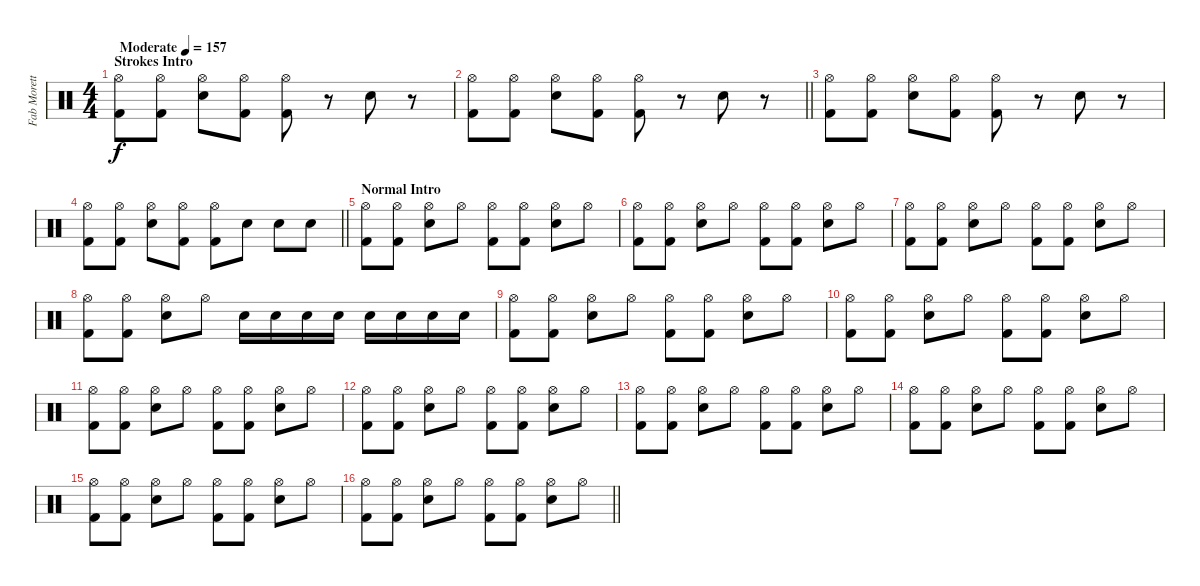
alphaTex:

\track ("Fab Moretti - Drums" "Fab Morett") {instrument percussion bank 177}
\staff {score}
\articulation defaults
\ts (4 4)
\section ("" "Strokes Intro")
\tempo (157 "Moderate")
\clef neutral
\ks c
("Hi-Hat (open)" "Kick (hit) 2").8{dy f} ("Hi-Hat (open)" "Kick (hit) 2").8 ("Hi-Hat (open)" "Electric Snare (hit)").8 ("Hi-Hat (open)" "Kick (hit) 2").8 ("Hi-Hat (open)" "Kick (hit) 2").8 r.8 "Electric Snare (hit)".8 r.8 |
\barLineRight lightlight
("Hi-Hat (open)" "Kick (hit) 2").8 ("Hi-Hat (open)" "Kick (hit) 2").8 ("Hi-Hat (open)" "Electric Snare (hit)").8 ("Hi-Hat (open)" "Kick (hit) 2").8 ("Hi-Hat (open)" "Kick (hit) 2").8 r.8 "Electric Snare (hit)".8 r.8 |
("Hi-Hat (open)" "Kick (hit) 2").8 ("Hi-Hat (open)" "Kick (hit) 2").8 ("Hi-Hat (open)" "Electric Snare (hit)").8 ("Hi-Hat (open)" "Kick (hit) 2").8 ("Hi-Hat (open)" "Kick (hit) 2").8 r.8 "Electric Snare (hit)".8 r.8 |
\barLineRight lightlight
("Hi-Hat (open)" "Kick (hit) 2").8 ("Hi-Hat (open)" "Kick (hit) 2").8 ("Hi-Hat (open)" "Electric Snare (hit)").8 ("Hi-Hat (open)" "Kick (hit) 2").8 ("Hi-Hat (open)" "Kick (hit) 2").8 "Electric Snare (hit)".8 "Electric Snare (hit)".8 "Electric Snare (hit)".8 |
\section ("" "Normal Intro")
("Hi-Hat (open)" "Kick (hit) 2").8 ("Hi-Hat (open)" "Kick (hit) 2").8 ("Hi-Hat (open)" "Electric Snare (hit)").8 "Hi-Hat (open)".8 ("Hi-Hat (open)" "Kick (hit) 2").8 ("Hi-Hat (open)" "Kick (hit) 2").8 ("Hi-Hat (open)" "Electric Snare (hit)").8 "Hi-Hat (open)".8 |
("Hi-Hat (open)" "Kick (hit) 2").8 ("Hi-Hat (open)" "Kick (hit) 2").8 ("Hi-Hat (open)" "Electric Snare (hit)").8 "Hi-Hat (open)".8 ("Hi-Hat (open)" "Kick (hit) 2").8 ("Hi-Hat (open)" "Kick (hit) 2").8 ("Hi-Hat (open)" "Electric Snare (hit)").8 "Hi-Hat (open)".8 |
("Hi-Hat (open)" "Kick (hit) 2").8 ("Hi-Hat (open)" "Kick (hit) 2").8 ("Hi-Hat (open)" "Electric Snare (hit)").8 "Hi-Hat (open)".8 ("Hi-Hat (open)" "Kick (hit) 2").8 ("Hi-Hat (open)" "Kick (hit) 2").8 ("Hi-Hat (open)" "Electric Snare (hit)").8 "Hi-Hat (open)".8 |
("Hi-Hat (open)" "Kick (hit) 2").8 ("Hi-Hat (open)" "Kick (hit) 2").8 ("Hi-Hat (open)" "Electric Snare (hit)").8 "Hi-Hat (open)".8 "Electric Snare (hit)".16 "Electric Snare (hit)".16 "Electric Snare (hit)".16 "Electric Snare (hit)".16 "Electric Snare (hit)".16 "Electric Snare (hit)".16 "Electric Snare (hit)".16 "Electric Snare (hit)".16 |
("Hi-Hat (open)" "Kick (hit) 2").8 ("Hi-Hat (open)" "Kick (hit) 2").8 ("Hi-Hat (open)" "Electric Snare (hit)").8 "Hi-Hat (open)".8 ("Hi-Hat (open)" "Kick (hit) 2").8 ("Hi-Hat (open)" "Kick (hit) 2").8 ("Hi-Hat (open)" "Electric Snare (hit)").8 "Hi-Hat (open)".8 |
("Hi-Hat (open)" "Kick (hit) 2").8 ("Hi-Hat (open)" "Kick (hit) 2").8 ("Hi-Hat (open)" "Electric Snare (hit)").8 "Hi-Hat (open)".8 ("Hi-Hat (open)" "Kick (hit) 2").8 ("Hi-Hat (open)" "Kick (hit) 2").8 ("Hi-Hat (open)" "Electric Snare (hit)").8 "Hi-Hat (open)".8 |
("Hi-Hat (open)" "Kick (hit) 2").8 ("Hi-Hat (open)" "Kick (hit) 2").8 ("Hi-Hat (open)" "Electric Snare (hit)").8 "Hi-Hat (open)".8 ("Hi-Hat (open)" "Kick (hit) 2").8 ("Hi-Hat (open)" "Kick (hit) 2").8 ("Hi-Hat (open)" "Electric Snare (hit)").8 "Hi-Hat (open)".8 |
("Hi-Hat (open)" "Kick (hit) 2").8 ("Hi-Hat (open)" "Kick (hit) 2").8 ("Hi-Hat (open)" "Electric Snare (hit)").8 "Hi-Hat (open)".8 ("Hi-Hat (open)" "Kick (hit) 2").8 ("Hi-Hat (open)" "Kick (hit) 2").8 ("Hi-Hat (open)" "Electric Snare (hit)").8 "Hi-Hat (open)".8 |
("Hi-Hat (open)" "Kick (hit) 2").8 ("Hi-Hat (open)" "Kick (hit) 2").8 ("Hi-Hat (open)" "Electric Snare (hit)").8 "Hi-Hat (open)".8 ("Hi-Hat (open)" "Kick (hit) 2").8 ("Hi-Hat (open)" "Kick (hit) 2").8 ("Hi-Hat (open)" "Electric Snare (hit)").8 "Hi-Hat (open)".8 |
("Hi-Hat (open)" "Kick (hit) 2").8 ("Hi-Hat (open)" "Kick (hit) 2").8 ("Hi-Hat (open)" "Electric Snare (hit)").8 "Hi-Hat (open)".8 ("Hi-Hat (open)" "Kick (hit) 2").8 ("Hi-Hat (open)" "Kick (hit) 2").8 ("Hi-Hat (open)" "Electric Snare (hit)").8 "Hi-Hat (open)".8 |
("Hi-Hat (open)" "Kick (hit) 2").8 ("Hi-Hat (open)" "Kick (hit) 2").8 ("Hi-Hat (open)" "Electric Snare (hit)").8 "Hi-Hat (open)".8 ("Hi-Hat (open)" "Kick (hit) 2").8 ("Hi-Hat (open)" "Kick (hit) 2").8 ("Hi-Hat (open)" "Electric Snare (hit)").8 "Hi-Hat (open)".8 |
\barLineRight lightlight
("Hi-Hat (open)" "Kick (hit) 2").8 ("Hi-Hat (open)" "Kick (hit) 2").8 ("Hi-Hat (open)" "Electric Snare (hit)").8 "Hi-Hat (open)".8 ("Hi-Hat (open)" "Kick (hit) 2").8 ("Hi-Hat (open)" "Kick (hit) 2").8 ("Hi-Hat (open)" "Electric Snare (hit)").8 "Hi-Hat (open)".8
